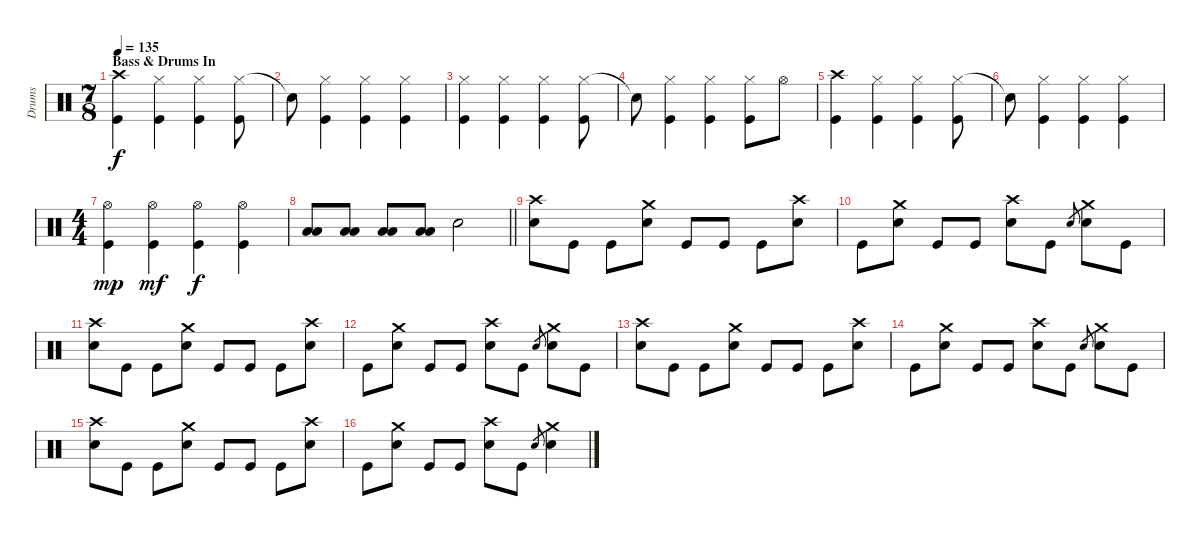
\track ("Drums" "Drums") {instrument percussion}
\staff {score}
\articulation defaults
\ts (7 8)
\section ("" "Bass & Drums In")
\tempo 135
\clef neutral
\ks c
("Crash high (hit)" "Kick (hit)").4{dy f} ("Hi-Hat (closed)" "Kick (hit)").4 ("Hi-Hat (closed)" "Kick (hit)").4 ("Hi-Hat (closed)" "Kick (hit)").8 |
"Snare (hit)"{t}.8 ("Hi-Hat (closed)" "Kick (hit)").4 ("Hi-Hat (closed)" "Kick (hit)").4 ("Hi-Hat (closed)" "Kick (hit)").4 |
("Hi-Hat (closed)" "Kick (hit)").4 ("Hi-Hat (closed)" "Kick (hit)").4 ("Hi-Hat (closed)" "Kick (hit)").4 ("Hi-Hat (closed)" "Kick (hit)").8 |
"Snare (hit)"{t}.8 ("Hi-Hat (closed)" "Kick (hit)").4 ("Hi-Hat (closed)" "Kick (hit)").4 ("Hi-Hat (closed)" "Kick (hit)").8 "Hi-Hat (open)".8 |
("Crash high (hit)" "Kick (hit)").4 ("Hi-Hat (closed)" "Kick (hit)").4 ("Hi-Hat (closed)" "Kick (hit)").4 ("Hi-Hat (closed)" "Kick (hit)").8 |
"Snare (hit)"{t}.8 ("Hi-Hat (closed)" "Kick (hit)").4 ("Hi-Hat (closed)" "Kick (hit)").4 ("Hi-Hat (closed)" "Kick (hit)").4 |
\ts (4 4)
("Hi-Hat (open)" "Kick (hit)").4{dy mp} ("Hi-Hat (open)" "Kick (hit)").4{dy mf} ("Hi-Hat (open)" "Kick (hit)").4{dy f} ("Hi-Hat (open)" "Kick (hit)").4 |
\barLineRight lightlight
("Low Tom (hit)" "Low Floor Tom (hit)").8 ("Low Tom (hit)" "Low Floor Tom (hit)").8 ("Low Tom (hit)" "Low Floor Tom (hit)").8 ("Low Tom (hit)" "Low Floor Tom (hit)").8 "Electric Snare (hit)".2 |
\section ("" "")
("Crash high (hit)" "Electric Snare (hit)").8 "Kick (hit)".8 "Kick (hit)".8 ("Crash medium (hit)" "Electric Snare (hit)").8 "Kick (hit)".8 "Kick (hit)".8 "Kick (hit)".8 ("Crash high (hit)" "Electric Snare (hit)").8 |
"Kick (hit)".8 ("Crash medium (hit)" "Electric Snare (hit)").8 "Kick (hit)".8 "Kick (hit)".8 ("Crash high (hit)" "Electric Snare (hit)").8 "Kick (hit)".8 "Electric Snare (hit)".8{gr} ("Crash medium (hit)" "Electric Snare (hit)").8 "Kick (hit)".8 |
("Crash high (hit)" "Electric Snare (hit)").8 "Kick (hit)".8 "Kick (hit)".8 ("Crash medium (hit)" "Electric Snare (hit)").8 "Kick (hit)".8 "Kick (hit)".8 "Kick (hit)".8 ("Crash high (hit)" "Electric Snare (hit)").8 |
"Kick (hit)".8 ("Crash medium (hit)" "Electric Snare (hit)").8 "Kick (hit)".8 "Kick (hit)".8 ("Crash high (hit)" "Electric Snare (hit)").8 "Kick (hit)".8 "Electric Snare (hit)".8{gr} ("Crash medium (hit)" "Electric Snare (hit)").8 "Kick (hit)".8 |
("Crash high (hit)" "Electric Snare (hit)").8 "Kick (hit)".8 "Kick (hit)".8 ("Crash medium (hit)" "Electric Snare (hit)").8 "Kick (hit)".8 "Kick (hit)".8 "Kick (hit)".8 ("Crash high (hit)" "Electric Snare (hit)").8 |
"Kick (hit)".8 ("Crash medium (hit)" "Electric Snare (hit)").8 "Kick (hit)".8 "Kick (hit)".8 ("Crash high (hit)" "Electric Snare (hit)").8 "Kick (hit)".8 "Electric Snare (hit)".8{gr} ("Crash medium (hit)" "Electric Snare (hit)").8 "Kick (hit)".8 |
("Crash high (hit)" "Electric Snare (hit)").8 "Kick (hit)".8 "Kick (hit)".8 ("Crash medium (hit)" "Electric Snare (hit)").8 "Kick (hit)".8 "Kick (hit)".8 "Kick (hit)".8 ("Crash high (hit)" "Electric Snare (hit)").8 |
"Kick (hit)".8 ("Crash medium (hit)" "Electric Snare (hit)").8 "Kick (hit)".8 "Kick (hit)".8 ("Crash high (hit)" "Electric Snare (hit)").8 "Kick (hit)".8 "Electric Snare (hit)".8{gr} ("Crash medium (hit)" "Electric Snare (hit)").4
